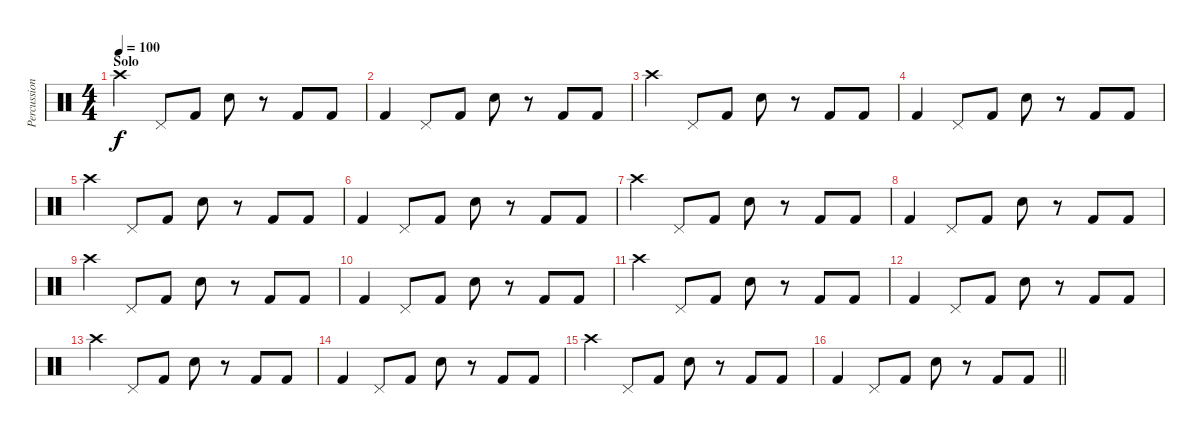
\track ("Percussion" "Percussion") {instrument percussion}
\staff {score}
\articulation defaults
\ts (4 4)
\section ("" "Solo")
\tempo 100
\clef neutral
\ks c "Crash high (hit)".4{dy f} "Pedal Hi-Hat (hit)".8 "Kick (hit) 2".8 "Electric Snare (hit)".8
r.8 "Kick (hit) 2".8 "Kick (hit) 2".8 |
"Kick (hit) 2".4 "Pedal Hi-Hat (hit)".8 "Kick (hit) 2".8 "Electric Snare (hit)".8 r.8 "Kick (hit) 2".8 "Kick (hit) 2".8 |
"Crash high (hit)".4 "Pedal Hi-Hat (hit)".8 "Kick (hit) 2".8 "Electric Snare (hit)".8 r.8 "Kick (hit) 2".8 "Kick (hit) 2".8 |
"Kick (hit) 2".4 "Pedal Hi-Hat (hit)".8 "Kick (hit) 2".8 "Electric Snare (hit)".8 r.8 "Kick (hit) 2".8 "Kick (hit) 2".8 |
"Crash high (hit)".4 "Pedal Hi-Hat (hit)".8 "Kick (hit) 2".8 "Electric Snare (hit)".8 r.8 "Kick (hit) 2".8 "Kick (hit) 2".8 |
"Kick (hit) 2".4 "Pedal Hi-Hat (hit)".8 "Kick (hit) 2".8 "Electric Snare (hit)".8 r.8 "Kick (hit) 2".8 "Kick (hit) 2".8 |
"Crash high (hit)".4 "Pedal Hi-Hat (hit)".8 "Kick (hit) 2".8 "Electric Snare (hit)".8 r.8 "Kick (hit) 2".8 "Kick (hit) 2".8 |
"Kick (hit) 2".4 "Pedal Hi-Hat (hit)".8 "Kick (hit) 2".8 "Electric Snare (hit)".8 r.8 "Kick (hit) 2".8 "Kick (hit) 2".8 |
"Crash high (hit)".4 "Pedal Hi-Hat (hit)".8 "Kick (hit) 2".8 "Electric Snare (hit)".8 r.8 "Kick (hit) 2".8 "Kick (hit) 2".8 |
"Kick (hit) 2".4 "Pedal Hi-Hat (hit)".8 "Kick (hit) 2".8 "Electric Snare (hit)".8 r.8 "Kick (hit) 2".8 "Kick (hit) 2".8 |
"Crash high (hit)".4 "Pedal Hi-Hat (hit)".8 "Kick (hit) 2".8 "Electric Snare (hit)".8 r.8 "Kick (hit) 2".8 "Kick (hit) 2".8 |
"Kick (hit) 2".4 "Pedal Hi-Hat (hit)".8 "Kick (hit) 2".8 "Electric Snare (hit)".8 r.8 "Kick (hit) 2".8 "Kick (hit) 2".8 |
"Crash high (hit)".4 "Pedal Hi-Hat (hit)".8 "Kick (hit) 2".8 "Electric Snare (hit)".8 r.8 "Kick (hit) 2".8 "Kick (hit) 2".8 |
"Kick (hit) 2".4 "Pedal Hi-Hat (hit)".8 "Kick (hit) 2".8 "Electric Snare (hit)".8 r.8 "Kick (hit) 2".8 "Kick (hit) 2".8 |
"Crash high (hit)".4 "Pedal Hi-Hat (hit)".8 "Kick (hit) 2".8 "Electric Snare (hit)".8 r.8 "Kick (hit) 2".8 "Kick (hit) 2".8 |
\barLineRight lightlight "Kick (hit) 2".4 "Pedal Hi-Hat (hit)".8 "Kick (hit) 2".8 "Electric Snare (hit)".8
r.8 "Kick (hit) 2".8 "Kick (hit) 2".8
